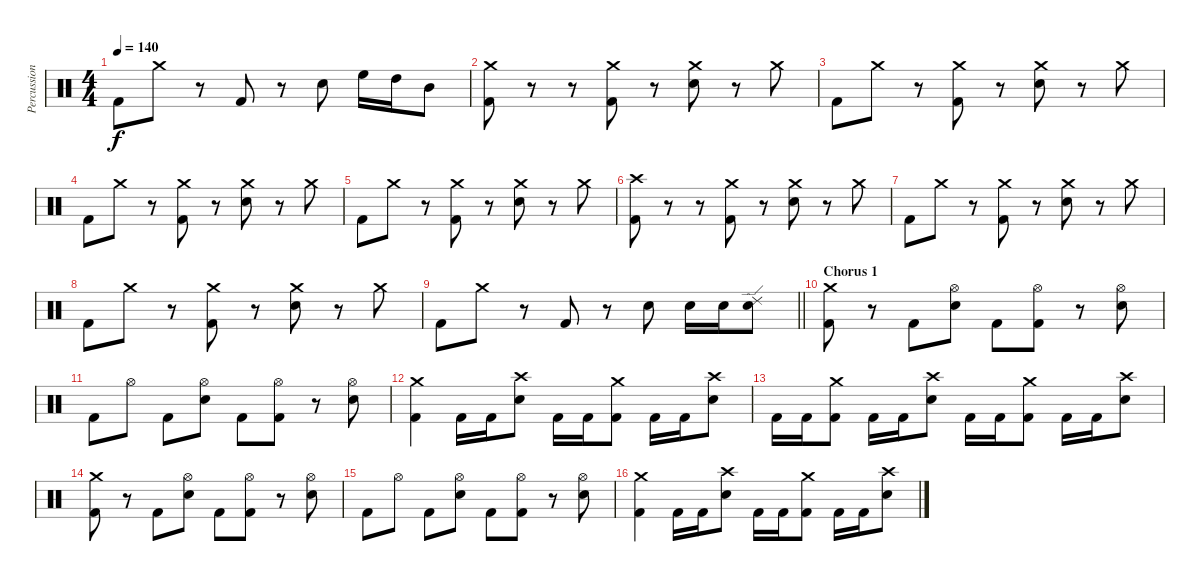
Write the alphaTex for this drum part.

\track ("Percussion" "Percussion") {instrument percussion}
\staff {score}
\articulation defaults
\ts (4 4)
\tempo 140
\clef neutral
\ks c "Kick (hit) 2".8{dy f} "Crash medium (hit)".8
r.8 "Kick (hit) 2".8 r.8 "Electric Snare (hit)".8 "High Floor Tom (hit)".16 "High Tom (hit)".16 "Mid Tom (hit)".8 |
("Crash medium (hit)" "Kick (hit) 2").8{volume 16} r.8 r.8 ("Crash medium (hit)" "Kick (hit) 2").8 r.8 ("Crash medium (hit)" "Electric Snare (hit)").8 r.8 "Crash medium (hit)".8 |
"Kick (hit) 2".8 "Crash medium (hit)".8 r.8 ("Crash medium (hit)" "Kick (hit) 2").8 r.8 ("Crash medium (hit)" "Electric Snare (hit)").8 r.8 "Crash medium (hit)".8 |
"Kick (hit) 2".8 "Crash medium (hit)".8 r.8 ("Crash medium (hit)" "Kick (hit) 2").8 r.8 ("Crash medium (hit)" "Electric Snare (hit)").8 r.8 "Crash medium (hit)".8 |
"Kick (hit) 2".8 "Crash medium (hit)".8 r.8 ("Crash medium (hit)" "Kick (hit) 2").8 r.8 ("Crash medium (hit)" "Electric Snare (hit)").8 r.8 "Crash medium (hit)".8 |
("Crash high (hit)" "Kick (hit) 2").8 r.8 r.8 ("Crash medium (hit)" "Kick (hit) 2").8 r.8 ("Crash medium (hit)" "Electric Snare (hit)").8 r.8 "Crash medium (hit)".8 |
"Kick (hit) 2".8 "Crash medium (hit)".8 r.8 ("Crash medium (hit)" "Kick (hit) 2").8 r.8 ("Crash medium (hit)" "Electric Snare (hit)").8 r.8 "Crash medium (hit)".8 |
"Kick (hit) 2".8 "Crash medium (hit)".8 r.8 ("Crash medium (hit)" "Kick (hit) 2").8 r.8 ("Crash medium (hit)" "Electric Snare (hit)").8 r.8 "Crash medium (hit)".8 |
\barLineRight lightlight "Kick (hit) 2".8 "Crash medium (hit)".8
r.8 "Kick (hit) 2".8 r.8 "Electric Snare (hit)".8 "Electric Snare (hit)".16 "Electric Snare (hit)".16 ("Ride (edge) 2" "Electric Snare (hit)").8 |
\section ("" "Chorus 1")
("Crash medium (hit)" "Kick (hit) 2").8 r.8 "Kick (hit) 2".8 ("Hi-Hat (open)" "Electric Snare (hit)").8 "Kick (hit) 2".8 ("Hi-Hat (open)" "Kick (hit) 2").8 r.8 ("Hi-Hat (open)" "Electric Snare (hit)").8 |
"Kick (hit) 2".8 "Hi-Hat (open)".8 "Kick (hit) 2".8 ("Hi-Hat (open)" "Electric Snare (hit)").8 "Kick (hit) 2".8 ("Hi-Hat (open)" "Kick (hit) 2").8 r.8 ("Hi-Hat (open)" "Electric Snare (hit)").8 |
("Crash medium (hit)" "Kick (hit) 2").4 "Kick (hit) 2".16 "Kick (hit) 2".16 ("Crash high (hit)" "Electric Snare (hit)").8 "Kick (hit) 2".16 "Kick (hit) 2".16 ("Crash medium (hit)" "Kick (hit) 2").8 "Kick (hit) 2".16 "Kick (hit) 2".16 ("Crash high (hit)" "Electric Snare (hit)").8 |
"Kick (hit) 2".16 "Kick (hit) 2".16 ("Crash medium (hit)" "Kick (hit) 2").8 "Kick (hit) 2".16 "Kick (hit) 2".16 ("Crash high (hit)" "Electric Snare (hit)").8 "Kick (hit) 2".16 "Kick (hit) 2".16 ("Crash medium (hit)" "Kick (hit) 2").8 "Kick (hit) 2".16 "Kick (hit) 2".16 ("Crash high (hit)" "Electric Snare (hit)").8 |
("Crash medium (hit)" "Kick (hit) 2").8 r.8 "Kick (hit) 2".8 ("Hi-Hat (open)" "Electric Snare (hit)").8 "Kick (hit) 2".8 ("Hi-Hat (open)" "Kick (hit) 2").8 r.8 ("Hi-Hat (open)" "Electric Snare (hit)").8 |
"Kick (hit) 2".8 "Hi-Hat (open)".8 "Kick (hit) 2".8 ("Hi-Hat (open)" "Electric Snare (hit)").8 "Kick (hit) 2".8 ("Hi-Hat (open)" "Kick (hit) 2").8 r.8 ("Hi-Hat (open)" "Electric Snare (hit)").8 |
("Crash medium (hit)" "Kick (hit) 2").4 "Kick (hit) 2".16 "Kick (hit) 2".16 ("Crash high (hit)" "Electric Snare (hit)").8 "Kick (hit) 2".16 "Kick (hit) 2".16 ("Crash medium (hit)" "Kick (hit) 2").8 "Kick (hit) 2".16 "Kick (hit) 2".16 ("Crash high (hit)" "Electric Snare (hit)").8
